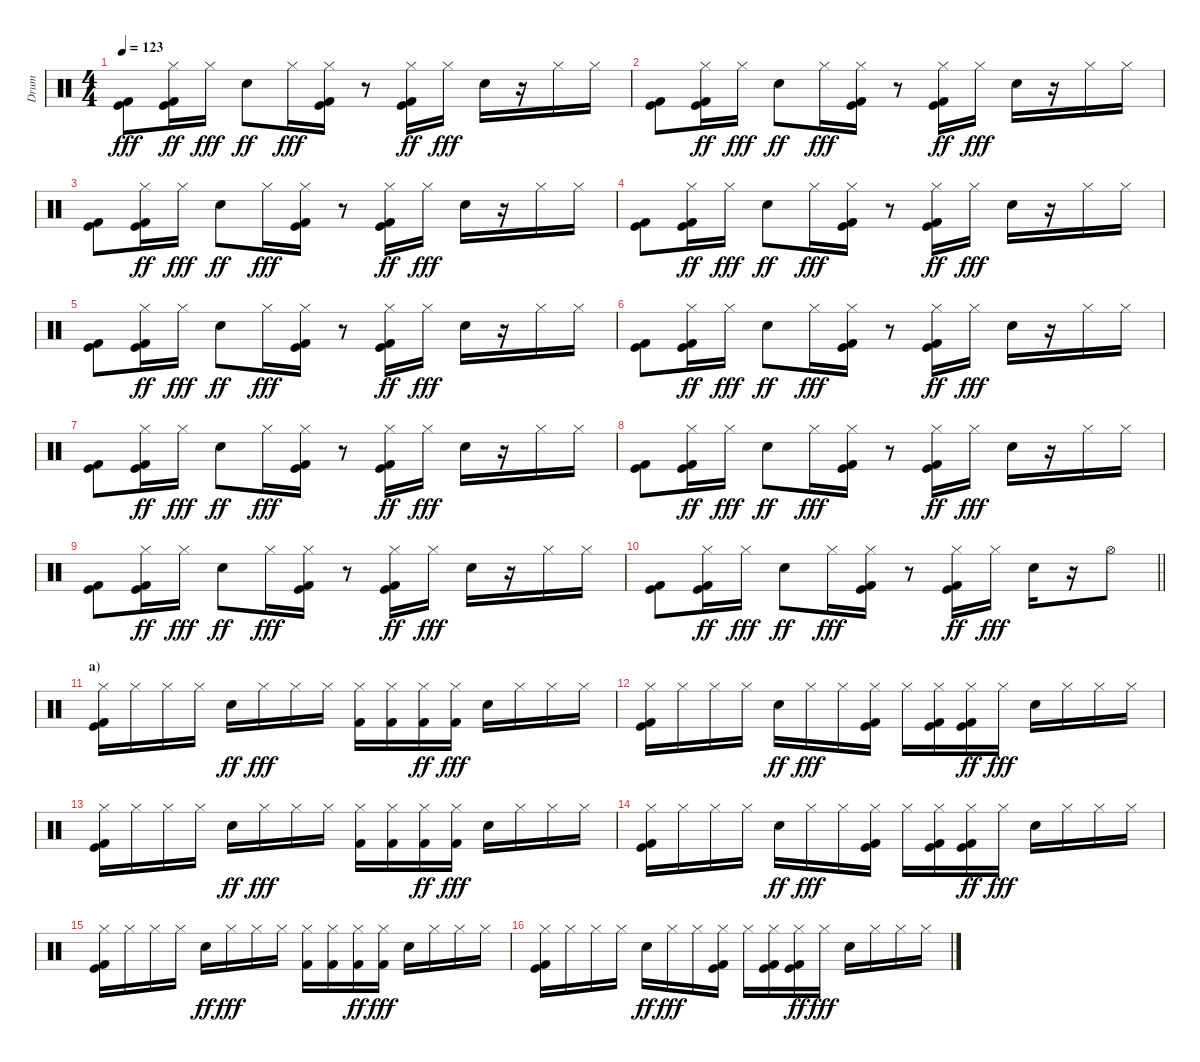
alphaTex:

\track ("Drum" "Drum") {instrument percussion}
\staff {score}
\articulation defaults
\ts (4 4)
\tempo 123
\clef neutral
\ks c
("Kick (hit)" "Kick (hit) 2").8{dy fff} ("Hi-Hat (closed)" "Kick (hit)" "Kick (hit) 2").16{dy ff} "Hi-Hat (closed)".16{dy fff} "Electric Snare (hit)".8{dy ff} "Hi-Hat (closed)".16{dy fff} ("Hi-Hat (closed)" "Kick (hit)" "Kick (hit) 2").16 r.8 ("Hi-Hat (closed)" "Kick (hit)" "Kick (hit) 2").16{dy ff} "Hi-Hat (closed)".16{dy fff} "Electric Snare (hit)".16 r.16 "Hi-Hat (closed)".16 "Hi-Hat (closed)".16 |
("Kick (hit)" "Kick (hit) 2").8 ("Hi-Hat (closed)" "Kick (hit)" "Kick (hit) 2").16{dy ff} "Hi-Hat (closed)".16{dy fff} "Electric Snare (hit)".8{dy ff} "Hi-Hat (closed)".16{dy fff} ("Hi-Hat (closed)" "Kick (hit)" "Kick (hit) 2").16 r.8 ("Hi-Hat (closed)" "Kick (hit)" "Kick (hit) 2").16{dy ff} "Hi-Hat (closed)".16{dy fff} "Electric Snare (hit)".16 r.16 "Hi-Hat (closed)".16 "Hi-Hat (closed)".16 |
("Kick (hit)" "Kick (hit) 2").8 ("Hi-Hat (closed)" "Kick (hit)" "Kick (hit) 2").16{dy ff} "Hi-Hat (closed)".16{dy fff} "Electric Snare (hit)".8{dy ff} "Hi-Hat (closed)".16{dy fff} ("Hi-Hat (closed)" "Kick (hit)" "Kick (hit) 2").16 r.8 ("Hi-Hat (closed)" "Kick (hit)" "Kick (hit) 2").16{dy ff} "Hi-Hat (closed)".16{dy fff} "Electric Snare (hit)".16 r.16 "Hi-Hat (closed)".16 "Hi-Hat (closed)".16 |
("Kick (hit)" "Kick (hit) 2").8 ("Hi-Hat (closed)" "Kick (hit)" "Kick (hit) 2").16{dy ff} "Hi-Hat (closed)".16{dy fff} "Electric Snare (hit)".8{dy ff} "Hi-Hat (closed)".16{dy fff} ("Hi-Hat (closed)" "Kick (hit)" "Kick (hit) 2").16 r.8 ("Hi-Hat (closed)" "Kick (hit)" "Kick (hit) 2").16{dy ff} "Hi-Hat (closed)".16{dy fff} "Electric Snare (hit)".16 r.16 "Hi-Hat (closed)".16 "Hi-Hat (closed)".16 |
("Kick (hit)" "Kick (hit) 2").8 ("Hi-Hat (closed)" "Kick (hit)" "Kick (hit) 2").16{dy ff} "Hi-Hat (closed)".16{dy fff} "Electric Snare (hit)".8{dy ff} "Hi-Hat (closed)".16{dy fff} ("Hi-Hat (closed)" "Kick (hit)" "Kick (hit) 2").16 r.8 ("Hi-Hat (closed)" "Kick (hit)" "Kick (hit) 2").16{dy ff} "Hi-Hat (closed)".16{dy fff} "Electric Snare (hit)".16 r.16 "Hi-Hat (closed)".16 "Hi-Hat (closed)".16 |
("Kick (hit)" "Kick (hit) 2").8 ("Hi-Hat (closed)" "Kick (hit)" "Kick (hit) 2").16{dy ff} "Hi-Hat (closed)".16{dy fff} "Electric Snare (hit)".8{dy ff} "Hi-Hat (closed)".16{dy fff} ("Hi-Hat (closed)" "Kick (hit)" "Kick (hit) 2").16 r.8 ("Hi-Hat (closed)" "Kick (hit)" "Kick (hit) 2").16{dy ff} "Hi-Hat (closed)".16{dy fff} "Electric Snare (hit)".16 r.16 "Hi-Hat (closed)".16 "Hi-Hat (closed)".16 |
("Kick (hit)" "Kick (hit) 2").8 ("Hi-Hat (closed)" "Kick (hit)" "Kick (hit) 2").16{dy ff} "Hi-Hat (closed)".16{dy fff} "Electric Snare (hit)".8{dy ff} "Hi-Hat (closed)".16{dy fff} ("Hi-Hat (closed)" "Kick (hit)" "Kick (hit) 2").16 r.8 ("Hi-Hat (closed)" "Kick (hit)" "Kick (hit) 2").16{dy ff} "Hi-Hat (closed)".16{dy fff} "Electric Snare (hit)".16 r.16 "Hi-Hat (closed)".16 "Hi-Hat (closed)".16 |
("Kick (hit)" "Kick (hit) 2").8 ("Hi-Hat (closed)" "Kick (hit)" "Kick (hit) 2").16{dy ff} "Hi-Hat (closed)".16{dy fff} "Electric Snare (hit)".8{dy ff} "Hi-Hat (closed)".16{dy fff} ("Hi-Hat (closed)" "Kick (hit)" "Kick (hit) 2").16 r.8 ("Hi-Hat (closed)" "Kick (hit)" "Kick (hit) 2").16{dy ff} "Hi-Hat (closed)".16{dy fff} "Electric Snare (hit)".16 r.16 "Hi-Hat (closed)".16 "Hi-Hat (closed)".16 |
("Kick (hit)" "Kick (hit) 2").8 ("Hi-Hat (closed)" "Kick (hit)" "Kick (hit) 2").16{dy ff} "Hi-Hat (closed)".16{dy fff} "Electric Snare (hit)".8{dy ff} "Hi-Hat (closed)".16{dy fff} ("Hi-Hat (closed)" "Kick (hit)" "Kick (hit) 2").16 r.8 ("Hi-Hat (closed)" "Kick (hit)" "Kick (hit) 2").16{dy ff} "Hi-Hat (closed)".16{dy fff} "Electric Snare (hit)".16 r.16 "Hi-Hat (closed)".16 "Hi-Hat (closed)".16 |
\barLineRight lightlight
("Kick (hit)" "Kick (hit) 2").8 ("Hi-Hat (closed)" "Kick (hit)" "Kick (hit) 2").16{dy ff} "Hi-Hat (closed)".16{dy fff} "Electric Snare (hit)".8{dy ff} "Hi-Hat (closed)".16{dy fff} ("Hi-Hat (closed)" "Kick (hit)" "Kick (hit) 2").16 r.8 ("Hi-Hat (closed)" "Kick (hit)" "Kick (hit) 2").16{dy ff} "Hi-Hat (closed)".16{dy fff} "Electric Snare (hit)".16 r.16 "Hi-Hat (open)".8 |
\section ("" "a)")
("Hi-Hat (closed)" "Kick (hit)" "Kick (hit) 2").16 "Hi-Hat (closed)".16 "Hi-Hat (closed)".16 "Hi-Hat (closed)".16 "Electric Snare (hit)".16{dy ff} "Hi-Hat (closed)".16{dy fff} "Hi-Hat (closed)".16 "Hi-Hat (closed)".16 ("Hi-Hat (closed)" "Kick (hit) 2").16 ("Hi-Hat (closed)" "Kick (hit) 2").16 ("Hi-Hat (closed)" "Kick (hit) 2").16{dy ff} ("Hi-Hat (closed)" "Kick (hit) 2").16{dy fff} "Electric Snare (hit)".16 "Hi-Hat (closed)".16 "Hi-Hat (closed)".16 "Hi-Hat (closed)".16 |
("Hi-Hat (closed)" "Kick (hit)" "Kick (hit) 2").16 "Hi-Hat (closed)".16 "Hi-Hat (closed)".16 "Hi-Hat (closed)".16 "Electric Snare (hit)".16{dy ff} "Hi-Hat (closed)".16{dy fff} "Hi-Hat (closed)".16 ("Hi-Hat (closed)" "Kick (hit)" "Kick (hit) 2").16 "Hi-Hat (closed)".16 ("Hi-Hat (closed)" "Kick (hit)" "Kick (hit) 2").16 ("Hi-Hat (closed)" "Kick (hit)" "Kick (hit) 2").16{dy ff} "Hi-Hat (closed)".16{dy fff} "Electric Snare (hit)".16 "Hi-Hat (closed)".16 "Hi-Hat (closed)".16 "Hi-Hat (closed)".16 |
("Hi-Hat (closed)" "Kick (hit)" "Kick (hit) 2").16 "Hi-Hat (closed)".16 "Hi-Hat (closed)".16 "Hi-Hat (closed)".16 "Electric Snare (hit)".16{dy ff} "Hi-Hat (closed)".16{dy fff} "Hi-Hat (closed)".16 "Hi-Hat (closed)".16 ("Hi-Hat (closed)" "Kick (hit) 2").16 ("Hi-Hat (closed)" "Kick (hit) 2").16 ("Hi-Hat (closed)" "Kick (hit) 2").16{dy ff} ("Hi-Hat (closed)" "Kick (hit) 2").16{dy fff} "Electric Snare (hit)".16 "Hi-Hat (closed)".16 "Hi-Hat (closed)".16 "Hi-Hat (closed)".16 |
("Hi-Hat (closed)" "Kick (hit)" "Kick (hit) 2").16 "Hi-Hat (closed)".16 "Hi-Hat (closed)".16 "Hi-Hat (closed)".16 "Electric Snare (hit)".16{dy ff} "Hi-Hat (closed)".16{dy fff} "Hi-Hat (closed)".16 ("Hi-Hat (closed)" "Kick (hit)" "Kick (hit) 2").16 "Hi-Hat (closed)".16 ("Hi-Hat (closed)" "Kick (hit)" "Kick (hit) 2").16 ("Hi-Hat (closed)" "Kick (hit)" "Kick (hit) 2").16{dy ff} "Hi-Hat (closed)".16{dy fff} "Electric Snare (hit)".16 "Hi-Hat (closed)".16 "Hi-Hat (closed)".16 "Hi-Hat (closed)".16 |
("Hi-Hat (closed)" "Kick (hit)" "Kick (hit) 2").16 "Hi-Hat (closed)".16 "Hi-Hat (closed)".16 "Hi-Hat (closed)".16 "Electric Snare (hit)".16{dy ff} "Hi-Hat (closed)".16{dy fff} "Hi-Hat (closed)".16 "Hi-Hat (closed)".16 ("Hi-Hat (closed)" "Kick (hit) 2").16 ("Hi-Hat (closed)" "Kick (hit) 2").16 ("Hi-Hat (closed)" "Kick (hit) 2").16{dy ff} ("Hi-Hat (closed)" "Kick (hit) 2").16{dy fff} "Electric Snare (hit)".16 "Hi-Hat (closed)".16 "Hi-Hat (closed)".16 "Hi-Hat (closed)".16 |
("Hi-Hat (closed)" "Kick (hit)" "Kick (hit) 2").16 "Hi-Hat (closed)".16 "Hi-Hat (closed)".16 "Hi-Hat (closed)".16 "Electric Snare (hit)".16{dy ff} "Hi-Hat (closed)".16{dy fff} "Hi-Hat (closed)".16 ("Hi-Hat (closed)" "Kick (hit)" "Kick (hit) 2").16 "Hi-Hat (closed)".16 ("Hi-Hat (closed)" "Kick (hit)" "Kick (hit) 2").16 ("Hi-Hat (closed)" "Kick (hit)" "Kick (hit) 2").16{dy ff} "Hi-Hat (closed)".16{dy fff} "Electric Snare (hit)".16 "Hi-Hat (closed)".16 "Hi-Hat (closed)".16 "Hi-Hat (closed)".16
